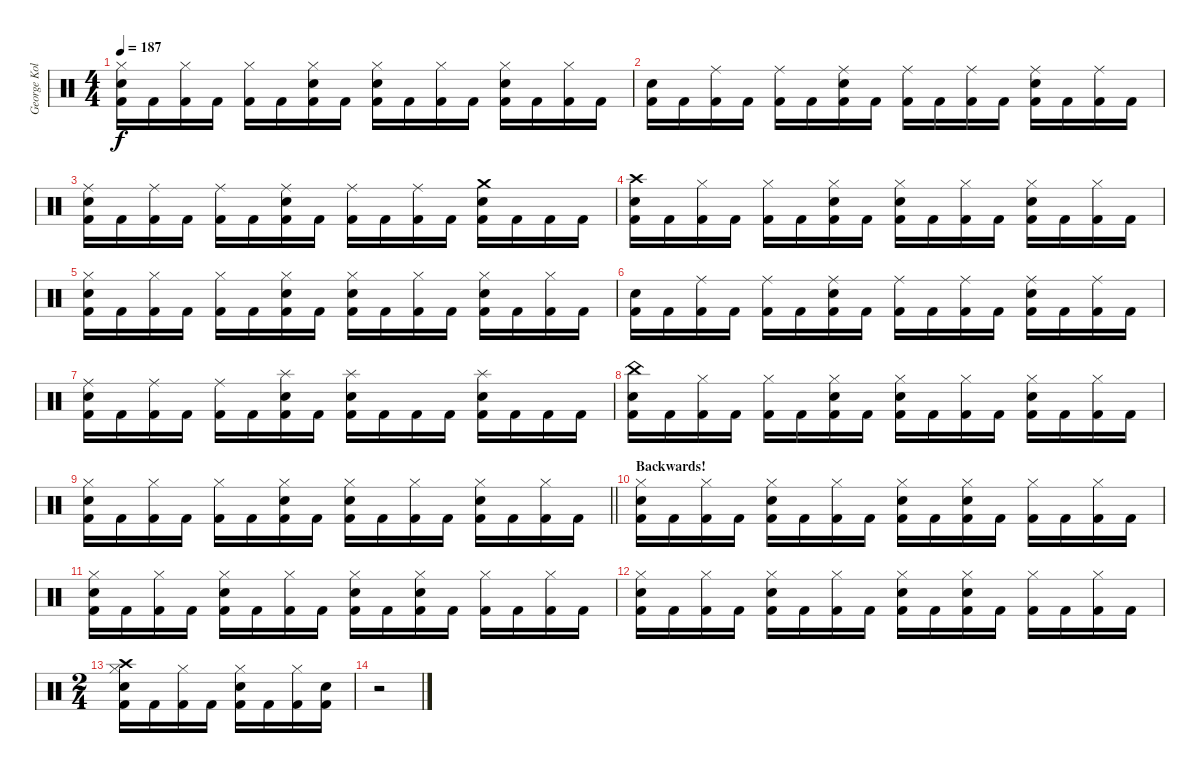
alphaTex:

\track ("George Kollias" "George Kol") {instrument percussion}
\staff {score}
\articulation defaults
\ts (4 4)
\tempo 187
\clef neutral
\ks c
("Hi-Hat (closed)" "Electric Snare (hit)" "Kick (hit) 2").16{dy f} "Kick (hit) 2".16 ("Hi-Hat (closed)" "Kick (hit) 2").16 "Kick (hit) 2".16 ("Hi-Hat (closed)" "Kick (hit) 2").16 "Kick (hit) 2".16 ("Hi-Hat (closed)" "Electric Snare (hit)" "Kick (hit) 2").16 "Kick (hit) 2".16 ("Hi-Hat (closed)" "Electric Snare (hit)" "Kick (hit) 2").16 "Kick (hit) 2".16 ("Hi-Hat (closed)" "Kick (hit) 2").16 "Kick (hit) 2".16 ("Hi-Hat (closed)" "Electric Snare (hit)" "Kick (hit) 2").16 "Kick (hit) 2".16 ("Hi-Hat (closed)" "Kick (hit) 2").16 "Kick (hit) 2".16 |
("Electric Snare (hit)" "Kick (hit) 2").16 "Kick (hit) 2".16 ("Ride (middle)" "Kick (hit) 2").16 "Kick (hit) 2".16 ("Ride (middle)" "Kick (hit) 2").16 "Kick (hit) 2".16 ("Ride (middle)" "Electric Snare (hit)" "Kick (hit) 2").16 "Kick (hit) 2".16 ("Ride (middle)" "Kick (hit) 2").16 "Kick (hit) 2".16 ("Ride (middle)" "Kick (hit) 2").16 "Kick (hit) 2".16 ("Ride (middle)" "Electric Snare (hit)" "Kick (hit) 2").16 "Kick (hit) 2".16 ("Ride (middle)" "Kick (hit) 2").16 "Kick (hit) 2".16 |
("Ride (middle)" "Electric Snare (hit)" "Kick (hit) 2").16 "Kick (hit) 2".16 ("Ride (middle)" "Kick (hit) 2").16 "Kick (hit) 2".16 ("Ride (middle)" "Kick (hit) 2").16 "Kick (hit) 2".16 ("Ride (middle)" "Electric Snare (hit)" "Kick (hit) 2").16 "Kick (hit) 2".16 ("Ride (middle)" "Kick (hit) 2").16 "Kick (hit) 2".16 ("Ride (middle)" "Kick (hit) 2").16 "Kick (hit) 2".16 ("Crash medium (hit)" "Electric Snare (hit)" "Kick (hit) 2").16 "Kick (hit) 2".16 "Kick (hit) 2".16 "Kick (hit) 2".16 |
("Crash high (hit)" "Electric Snare (hit)" "Kick (hit) 2").16 "Kick (hit) 2".16 ("Hi-Hat (closed)" "Kick (hit) 2").16 "Kick (hit) 2".16 ("Hi-Hat (closed)" "Kick (hit) 2").16 "Kick (hit) 2".16 ("Hi-Hat (closed)" "Electric Snare (hit)" "Kick (hit) 2").16 "Kick (hit) 2".16 ("Hi-Hat (closed)" "Electric Snare (hit)" "Kick (hit) 2").16 "Kick (hit) 2".16 ("Hi-Hat (closed)" "Kick (hit) 2").16 "Kick (hit) 2".16 ("Hi-Hat (closed)" "Electric Snare (hit)" "Kick (hit) 2").16 "Kick (hit) 2".16 ("Hi-Hat (closed)" "Kick (hit) 2").16 "Kick (hit) 2".16 |
("Hi-Hat (closed)" "Electric Snare (hit)" "Kick (hit) 2").16 "Kick (hit) 2".16 ("Hi-Hat (closed)" "Kick (hit) 2").16 "Kick (hit) 2".16 ("Hi-Hat (closed)" "Kick (hit) 2").16 "Kick (hit) 2".16 ("Hi-Hat (closed)" "Electric Snare (hit)" "Kick (hit) 2").16 "Kick (hit) 2".16 ("Hi-Hat (closed)" "Electric Snare (hit)" "Kick (hit) 2").16 "Kick (hit) 2".16 ("Hi-Hat (closed)" "Kick (hit) 2").16 "Kick (hit) 2".16 ("Hi-Hat (closed)" "Electric Snare (hit)" "Kick (hit) 2").16 "Kick (hit) 2".16 ("Hi-Hat (closed)" "Kick (hit) 2").16 "Kick (hit) 2".16 |
("Electric Snare (hit)" "Kick (hit) 2").16 "Kick (hit) 2".16 ("Ride (middle)" "Kick (hit) 2").16 "Kick (hit) 2".16 ("Ride (middle)" "Kick (hit) 2").16 "Kick (hit) 2".16 ("Ride (middle)" "Electric Snare (hit)" "Kick (hit) 2").16 "Kick (hit) 2".16 ("Ride (middle)" "Kick (hit) 2").16 "Kick (hit) 2".16 ("Ride (middle)" "Kick (hit) 2").16 "Kick (hit) 2".16 ("Ride (middle)" "Electric Snare (hit)" "Kick (hit) 2").16 "Kick (hit) 2".16 ("Ride (middle)" "Kick (hit) 2").16 "Kick (hit) 2".16 |
("Ride (middle)" "Electric Snare (hit)" "Kick (hit) 2").16 "Kick (hit) 2".16 ("Ride (middle)" "Kick (hit) 2").16 "Kick (hit) 2".16 ("Ride (middle)" "Kick (hit) 2").16 "Kick (hit) 2".16 ("Splash (hit)" "Electric Snare (hit)" "Kick (hit) 2").16 "Kick (hit) 2".16 ("Splash (hit)" "Electric Snare (hit)" "Kick (hit) 2").16 "Kick (hit) 2".16 "Kick (hit) 2".16 "Kick (hit) 2".16 ("Splash (hit)" "Electric Snare (hit)" "Kick (hit) 2").16 "Kick (hit) 2".16 "Kick (hit) 2".16 "Kick (hit) 2".16 |
("China (hit)" "Electric Snare (hit)" "Kick (hit) 2").16 "Kick (hit) 2".16 ("Hi-Hat (closed)" "Kick (hit) 2").16 "Kick (hit) 2".16 ("Hi-Hat (closed)" "Kick (hit) 2").16 "Kick (hit) 2".16 ("Hi-Hat (closed)" "Electric Snare (hit)" "Kick (hit) 2").16 "Kick (hit) 2".16 ("Hi-Hat (closed)" "Electric Snare (hit)" "Kick (hit) 2").16 "Kick (hit) 2".16 ("Hi-Hat (closed)" "Kick (hit) 2").16 "Kick (hit) 2".16 ("Hi-Hat (closed)" "Electric Snare (hit)" "Kick (hit) 2").16 "Kick (hit) 2".16 ("Hi-Hat (closed)" "Kick (hit) 2").16 "Kick (hit) 2".16 |
\barLineRight lightlight
("Hi-Hat (closed)" "Electric Snare (hit)" "Kick (hit) 2").16 "Kick (hit) 2".16 ("Hi-Hat (closed)" "Kick (hit) 2").16 "Kick (hit) 2".16 ("Hi-Hat (closed)" "Kick (hit) 2").16 "Kick (hit) 2".16 ("Hi-Hat (closed)" "Electric Snare (hit)" "Kick (hit) 2").16 "Kick (hit) 2".16 ("Hi-Hat (closed)" "Electric Snare (hit)" "Kick (hit) 2").16 "Kick (hit) 2".16 ("Hi-Hat (closed)" "Kick (hit) 2").16 "Kick (hit) 2".16 ("Hi-Hat (closed)" "Electric Snare (hit)" "Kick (hit) 2").16 "Kick (hit) 2".16 ("Hi-Hat (closed)" "Kick (hit) 2").16 "Kick (hit) 2".16 |
\section ("" "Backwards!")
("Hi-Hat (closed)" "Electric Snare (hit)" "Kick (hit) 2").16 "Kick (hit) 2".16 ("Hi-Hat (closed)" "Kick (hit) 2").16 "Kick (hit) 2".16 ("Hi-Hat (closed)" "Electric Snare (hit)" "Kick (hit) 2").16 "Kick (hit) 2".16 ("Hi-Hat (closed)" "Kick (hit) 2").16 "Kick (hit) 2".16 ("Hi-Hat (closed)" "Electric Snare (hit)" "Kick (hit) 2").16 "Kick (hit) 2".16 ("Hi-Hat (closed)" "Electric Snare (hit)" "Kick (hit) 2").16 "Kick (hit) 2".16 ("Hi-Hat (closed)" "Kick (hit) 2").16 "Kick (hit) 2".16 ("Hi-Hat (closed)" "Kick (hit) 2").16 "Kick (hit) 2".16 |
("Hi-Hat (closed)" "Electric Snare (hit)" "Kick (hit) 2").16 "Kick (hit) 2".16 ("Hi-Hat (closed)" "Kick (hit) 2").16 "Kick (hit) 2".16 ("Hi-Hat (closed)" "Electric Snare (hit)" "Kick (hit) 2").16 "Kick (hit) 2".16 ("Hi-Hat (closed)" "Kick (hit) 2").16 "Kick (hit) 2".16 ("Hi-Hat (closed)" "Electric Snare (hit)" "Kick (hit) 2").16 "Kick (hit) 2".16 ("Hi-Hat (closed)" "Electric Snare (hit)" "Kick (hit) 2").16 "Kick (hit) 2".16 ("Hi-Hat (closed)" "Kick (hit) 2").16 "Kick (hit) 2".16 ("Hi-Hat (closed)" "Kick (hit) 2").16 "Kick (hit) 2".16 |
("Hi-Hat (closed)" "Electric Snare (hit)" "Kick (hit) 2").16 "Kick (hit) 2".16 ("Hi-Hat (closed)" "Kick (hit) 2").16 "Kick (hit) 2".16 ("Hi-Hat (closed)" "Electric Snare (hit)" "Kick (hit) 2").16 "Kick (hit) 2".16 ("Hi-Hat (closed)" "Kick (hit) 2").16 "Kick (hit) 2".16 ("Hi-Hat (closed)" "Electric Snare (hit)" "Kick (hit) 2").16 "Kick (hit) 2".16 ("Hi-Hat (closed)" "Electric Snare (hit)" "Kick (hit) 2").16 "Kick (hit) 2".16 ("Hi-Hat (closed)" "Kick (hit) 2").16 "Kick (hit) 2".16 ("Hi-Hat (closed)" "Kick (hit) 2").16 "Kick (hit) 2".16 |
\ts (2 4)
("Crash high (hit)" "Hi-Hat (closed)" "Electric Snare (hit)" "Kick (hit) 2").16 "Kick (hit) 2".16 ("Hi-Hat (closed)" "Kick (hit) 2").16 "Kick (hit) 2".16 ("Hi-Hat (closed)" "Electric Snare (hit)" "Kick (hit) 2").16 "Kick (hit) 2".16 ("Hi-Hat (closed)" "Kick (hit) 2").16 ("Electric Snare (hit)" "Kick (hit) 2").16 |
r.2
